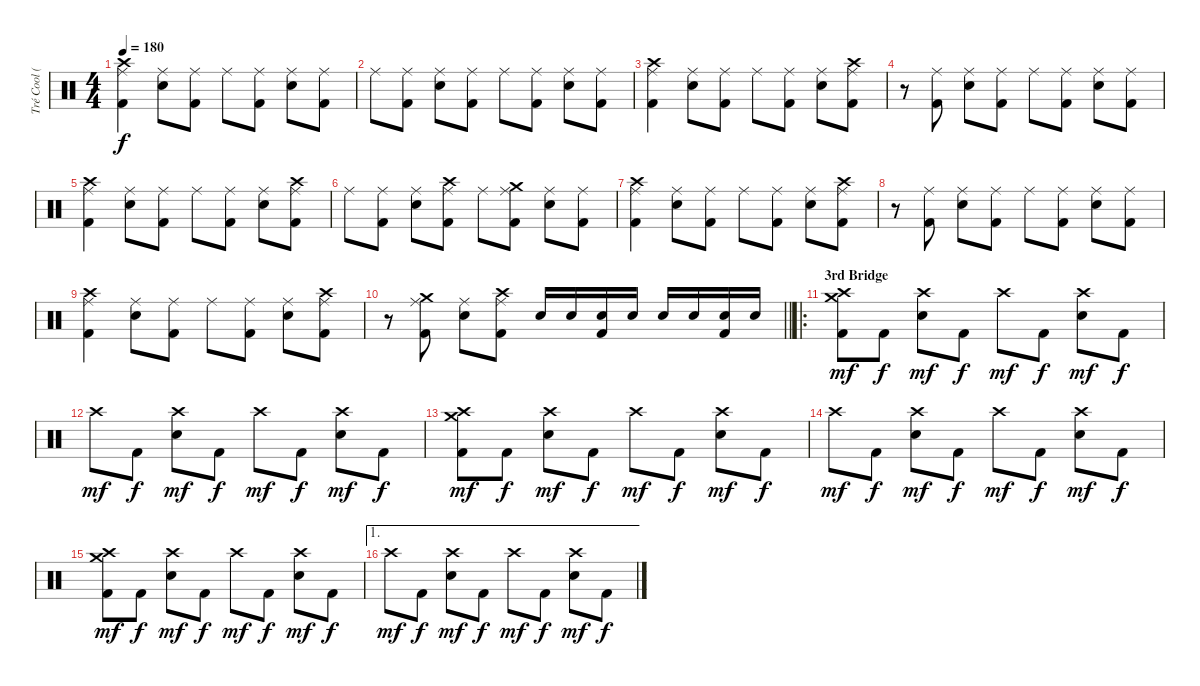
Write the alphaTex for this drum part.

\track ("Tré Cool (Drums)" "Tré Cool (") {instrument percussion}
\staff {score}
\articulation defaults
\ts (4 4)
\tempo 180
\clef neutral
\ks c
("Crash high (hit)" "Ride (middle)" "Kick (hit) 2").4{dy f} ("Ride (middle)" "Electric Snare (hit)").8 ("Ride (middle)" "Kick (hit) 2").8 "Ride (middle)".8 ("Ride (middle)" "Kick (hit) 2").8 ("Ride (middle)" "Electric Snare (hit)").8 ("Ride (middle)" "Kick (hit) 2").8 |
"Ride (middle)".8 ("Ride (middle)" "Kick (hit) 2").8 ("Ride (middle)" "Electric Snare (hit)").8 ("Ride (middle)" "Kick (hit) 2").8 "Ride (middle)".8 ("Ride (middle)" "Kick (hit) 2").8 ("Ride (middle)" "Electric Snare (hit)").8 ("Ride (middle)" "Kick (hit) 2").8 |
("Crash high (hit)" "Ride (middle)" "Kick (hit) 2").4 ("Ride (middle)" "Electric Snare (hit)").8 ("Ride (middle)" "Kick (hit) 2").8 "Ride (middle)".8 ("Ride (middle)" "Kick (hit) 2").8 ("Ride (middle)" "Electric Snare (hit)").8 ("Crash high (hit)" "Ride (middle)" "Kick (hit) 2").8 |
r.8 ("Ride (middle)" "Kick (hit) 2").8 ("Ride (middle)" "Electric Snare (hit)").8 ("Ride (middle)" "Kick (hit) 2").8 "Ride (middle)".8 ("Ride (middle)" "Kick (hit) 2").8 ("Ride (middle)" "Electric Snare (hit)").8 ("Ride (middle)" "Kick (hit) 2").8 |
("Crash high (hit)" "Ride (middle)" "Kick (hit) 2").4 ("Ride (middle)" "Electric Snare (hit)").8 ("Ride (middle)" "Kick (hit) 2").8 "Ride (middle)".8 ("Ride (middle)" "Kick (hit) 2").8 ("Ride (middle)" "Electric Snare (hit)").8 ("Crash high (hit)" "Ride (middle)" "Kick (hit) 2").8 |
"Ride (middle)".8 ("Ride (middle)" "Kick (hit) 2").8 ("Ride (middle)" "Electric Snare (hit)").8 ("Crash high (hit)" "Ride (middle)" "Kick (hit) 2").8 "Ride (middle)".8 ("Crash medium (hit)" "Ride (middle)" "Kick (hit) 2").8 ("Ride (middle)" "Electric Snare (hit)").8 ("Ride (middle)" "Kick (hit) 2").8 |
("Crash high (hit)" "Ride (middle)" "Kick (hit) 2").4 ("Ride (middle)" "Electric Snare (hit)").8 ("Ride (middle)" "Kick (hit) 2").8 "Ride (middle)".8 ("Ride (middle)" "Kick (hit) 2").8 ("Ride (middle)" "Electric Snare (hit)").8 ("Crash high (hit)" "Ride (middle)" "Kick (hit) 2").8 |
r.8 ("Ride (middle)" "Kick (hit) 2").8 ("Ride (middle)" "Electric Snare (hit)").8 ("Ride (middle)" "Kick (hit) 2").8 "Ride (middle)".8 ("Ride (middle)" "Kick (hit) 2").8 ("Ride (middle)" "Electric Snare (hit)").8 ("Ride (middle)" "Kick (hit) 2").8 |
("Crash high (hit)" "Ride (middle)" "Kick (hit) 2").4 ("Ride (middle)" "Electric Snare (hit)").8 ("Ride (middle)" "Kick (hit) 2").8 "Ride (middle)".8 ("Ride (middle)" "Kick (hit) 2").8 ("Ride (middle)" "Electric Snare (hit)").8 ("Crash high (hit)" "Ride (middle)" "Kick (hit) 2").8 |
\barLineRight lightlight
r.8 ("Crash medium (hit)" "Ride (middle)" "Kick (hit) 2").8 ("Ride (middle)" "Electric Snare (hit)").8 ("Crash high (hit)" "Ride (middle)" "Kick (hit) 2").8 "Electric Snare (hit)".16 "Electric Snare (hit)".16 ("Electric Snare (hit)" "Kick (hit) 2").16 "Electric Snare (hit)".16 "Electric Snare (hit)".16 "Electric Snare (hit)".16 ("Electric Snare (hit)" "Kick (hit) 2").16 "Electric Snare (hit)".16 |
\ro
\section ("" "3rd Bridge")
("Crash medium (hit)" "Crash high (hit)" "Kick (hit) 2").8{dy mf} "Kick (hit) 2".8{dy f} ("Crash high (hit)" "Electric Snare (hit)").8{dy mf} "Kick (hit) 2".8{dy f} "Crash high (hit)".8{dy mf} "Kick (hit) 2".8{dy f} ("Crash high (hit)" "Electric Snare (hit)").8{dy mf} "Kick (hit) 2".8{dy f} |
"Crash high (hit)".8{dy mf} "Kick (hit) 2".8{dy f} ("Crash high (hit)" "Electric Snare (hit)").8{dy mf} "Kick (hit) 2".8{dy f} "Crash high (hit)".8{dy mf} "Kick (hit) 2".8{dy f} ("Crash high (hit)" "Electric Snare (hit)").8{dy mf} "Kick (hit) 2".8{dy f} |
("Crash medium (hit)" "Crash high (hit)" "Kick (hit) 2").8{dy mf} "Kick (hit) 2".8{dy f} ("Crash high (hit)" "Electric Snare (hit)").8{dy mf} "Kick (hit) 2".8{dy f} "Crash high (hit)".8{dy mf} "Kick (hit) 2".8{dy f} ("Crash high (hit)" "Electric Snare (hit)").8{dy mf} "Kick (hit) 2".8{dy f} |
"Crash high (hit)".8{dy mf} "Kick (hit) 2".8{dy f} ("Crash high (hit)" "Electric Snare (hit)").8{dy mf} "Kick (hit) 2".8{dy f} "Crash high (hit)".8{dy mf} "Kick (hit) 2".8{dy f} ("Crash high (hit)" "Electric Snare (hit)").8{dy mf} "Kick (hit) 2".8{dy f} |
("Crash medium (hit)" "Crash high (hit)" "Kick (hit) 2").8{dy mf} "Kick (hit) 2".8{dy f} ("Crash high (hit)" "Electric Snare (hit)").8{dy mf} "Kick (hit) 2".8{dy f} "Crash high (hit)".8{dy mf} "Kick (hit) 2".8{dy f} ("Crash high (hit)" "Electric Snare (hit)").8{dy mf} "Kick (hit) 2".8{dy f} |
\ae 1 "Crash high (hit)".8{dy mf} "Kick (hit) 2".8{dy f}
("Crash high (hit)" "Electric Snare (hit)").8{dy mf} "Kick (hit) 2".8{dy f} "Crash high (hit)".8{dy mf} "Kick (hit) 2".8{dy f} ("Crash high (hit)" "Electric Snare (hit)").8{dy mf} "Kick (hit) 2".8{dy f}
